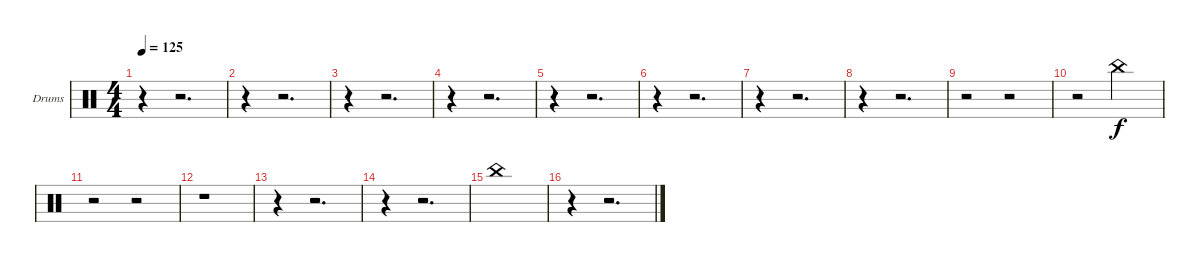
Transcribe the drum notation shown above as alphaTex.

\bracketExtendMode groupsimilarinstruments
\firstSystemTrackNameOrientation horizontal
\otherSystemsTrackNameOrientation horizontal
\track ("Drumkit" "Drums") {instrument percussion}
\staff {score}
\articulation defaults
\ts (4 4)
\tempo 125
\clef neutral
\ks c
r.4{dy f} r.2{d} |
r.4 r.2{d} |
r.4 r.2{d} |
r.4 r.2{d} |
r.4 r.2{d} |
r.4 r.2{d} |
r.4 r.2{d} |
r.4 r.2{d} |
r.2 r.2 |
r.2 "China (hit)".2 |
r.2 r.2 |
r.1 |
r.4 r.2{d} |
r.4 r.2{d} |
"China (hit)".1 |
r.4 r.2{d}
